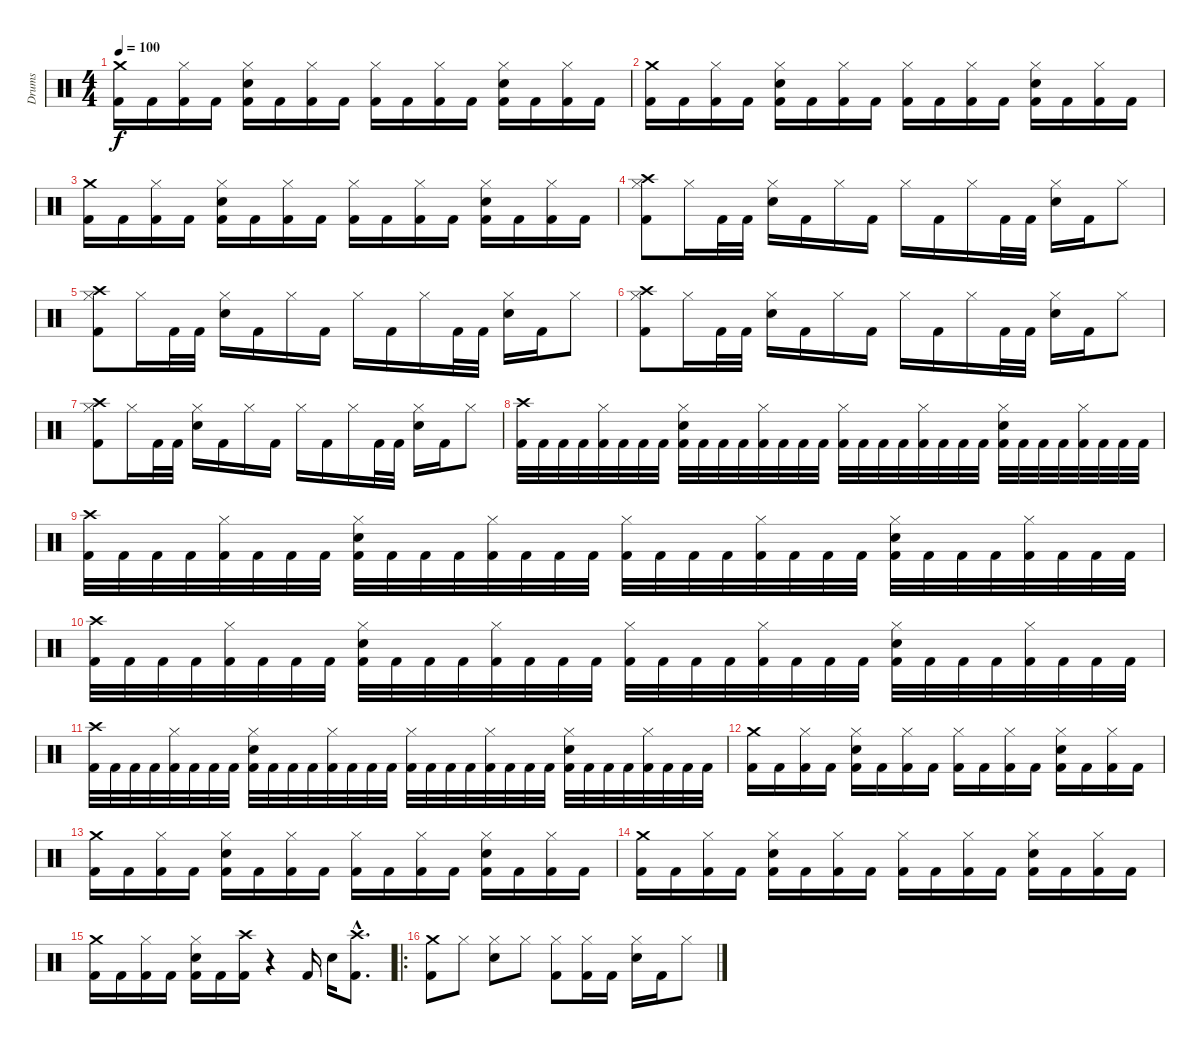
\track ("Drums" "Drums") {instrument percussion}
\staff {score}
\articulation defaults
\ts (4 4)
\tempo 100
\clef neutral
\ks c
("Kick (hit) 2" "Crash medium (hit)").16{dy f} "Kick (hit) 2".16 ("Kick (hit) 2" "Hi-Hat (closed)").16 "Kick (hit) 2".16 ("Kick (hit) 2" "Hi-Hat (closed)" "Snare (hit) 2").16 "Kick (hit) 2".16 ("Kick (hit) 2" "Hi-Hat (closed)").16 "Kick (hit) 2".16 ("Kick (hit) 2" "Hi-Hat (closed)").16 "Kick (hit) 2".16 ("Kick (hit) 2" "Hi-Hat (closed)").16 "Kick (hit) 2".16 ("Kick (hit) 2" "Hi-Hat (closed)" "Snare (hit) 2").16 "Kick (hit) 2".16 ("Kick (hit) 2" "Hi-Hat (closed)").16 "Kick (hit) 2".16 |
("Kick (hit) 2" "Crash medium (hit)").16 "Kick (hit) 2".16 ("Kick (hit) 2" "Hi-Hat (closed)").16 "Kick (hit) 2".16 ("Kick (hit) 2" "Hi-Hat (closed)" "Snare (hit) 2").16 "Kick (hit) 2".16 ("Kick (hit) 2" "Hi-Hat (closed)").16 "Kick (hit) 2".16 ("Kick (hit) 2" "Hi-Hat (closed)").16 "Kick (hit) 2".16 ("Kick (hit) 2" "Hi-Hat (closed)").16 "Kick (hit) 2".16 ("Kick (hit) 2" "Hi-Hat (closed)" "Snare (hit) 2").16 "Kick (hit) 2".16 ("Kick (hit) 2" "Hi-Hat (closed)").16 "Kick (hit) 2".16 |
("Kick (hit) 2" "Crash medium (hit)").16 "Kick (hit) 2".16 ("Kick (hit) 2" "Hi-Hat (closed)").16 "Kick (hit) 2".16 ("Kick (hit) 2" "Hi-Hat (closed)" "Snare (hit) 2").16 "Kick (hit) 2".16 ("Kick (hit) 2" "Hi-Hat (closed)").16 "Kick (hit) 2".16 ("Kick (hit) 2" "Hi-Hat (closed)").16 "Kick (hit) 2".16 ("Kick (hit) 2" "Hi-Hat (closed)").16 "Kick (hit) 2".16 ("Kick (hit) 2" "Hi-Hat (closed)" "Snare (hit) 2").16 "Kick (hit) 2".16 ("Kick (hit) 2" "Hi-Hat (closed)").16 "Kick (hit) 2".16 |
("Kick (hit) 2" "Hi-Hat (closed)" "Crash high (hit)").8 "Hi-Hat (closed)".16 "Kick (hit) 2".32 "Kick (hit) 2".32 ("Hi-Hat (closed)" "Snare (hit) 2").16 "Kick (hit) 2".16 "Hi-Hat (closed)".16 "Kick (hit) 2".16 "Hi-Hat (closed)".16 "Kick (hit) 2".16 "Hi-Hat (closed)".16 "Kick (hit) 2".32 "Kick (hit) 2".32 ("Hi-Hat (closed)" "Snare (hit) 2").16 "Kick (hit) 2".16 "Hi-Hat (closed)".8 |
("Kick (hit) 2" "Hi-Hat (closed)" "Crash high (hit)").8 "Hi-Hat (closed)".16 "Kick (hit) 2".32 "Kick (hit) 2".32 ("Hi-Hat (closed)" "Snare (hit) 2").16 "Kick (hit) 2".16 "Hi-Hat (closed)".16 "Kick (hit) 2".16 "Hi-Hat (closed)".16 "Kick (hit) 2".16 "Hi-Hat (closed)".16 "Kick (hit) 2".32 "Kick (hit) 2".32 ("Hi-Hat (closed)" "Snare (hit) 2").16 "Kick (hit) 2".16 "Hi-Hat (closed)".8 |
("Kick (hit) 2" "Hi-Hat (closed)" "Crash high (hit)").8 "Hi-Hat (closed)".16 "Kick (hit) 2".32 "Kick (hit) 2".32 ("Hi-Hat (closed)" "Snare (hit) 2").16 "Kick (hit) 2".16 "Hi-Hat (closed)".16 "Kick (hit) 2".16 "Hi-Hat (closed)".16 "Kick (hit) 2".16 "Hi-Hat (closed)".16 "Kick (hit) 2".32 "Kick (hit) 2".32 ("Hi-Hat (closed)" "Snare (hit) 2").16 "Kick (hit) 2".16 "Hi-Hat (closed)".8 |
("Kick (hit) 2" "Hi-Hat (closed)" "Crash high (hit)").8 "Hi-Hat (closed)".16 "Kick (hit) 2".32 "Kick (hit) 2".32 ("Hi-Hat (closed)" "Snare (hit) 2").16 "Kick (hit) 2".16 "Hi-Hat (closed)".16 "Kick (hit) 2".16 "Hi-Hat (closed)".16 "Kick (hit) 2".16 "Hi-Hat (closed)".16 "Kick (hit) 2".32 "Kick (hit) 2".32 ("Hi-Hat (closed)" "Snare (hit) 2").16 "Kick (hit) 2".16 "Hi-Hat (closed)".8 |
("Kick (hit) 2" "Crash high (hit)").32 "Kick (hit) 2".32 "Kick (hit) 2".32 "Kick (hit) 2".32 ("Kick (hit) 2" "Hi-Hat (closed)").32 "Kick (hit) 2".32 "Kick (hit) 2".32 "Kick (hit) 2".32 ("Kick (hit) 2" "Hi-Hat (closed)" "Snare (hit) 2").32 "Kick (hit) 2".32 "Kick (hit) 2".32 "Kick (hit) 2".32 ("Kick (hit) 2" "Hi-Hat (closed)").32 "Kick (hit) 2".32 "Kick (hit) 2".32 "Kick (hit) 2".32 ("Kick (hit) 2" "Hi-Hat (closed)").32 "Kick (hit) 2".32 "Kick (hit) 2".32 "Kick (hit) 2".32 ("Kick (hit) 2" "Hi-Hat (closed)").32 "Kick (hit) 2".32 "Kick (hit) 2".32 "Kick (hit) 2".32 ("Kick (hit) 2" "Hi-Hat (closed)" "Snare (hit) 2").32 "Kick (hit) 2".32 "Kick (hit) 2".32 "Kick (hit) 2".32 ("Kick (hit) 2" "Hi-Hat (closed)").32 "Kick (hit) 2".32 "Kick (hit) 2".32 "Kick (hit) 2".32 |
("Kick (hit) 2" "Crash high (hit)").32 "Kick (hit) 2".32 "Kick (hit) 2".32 "Kick (hit) 2".32 ("Kick (hit) 2" "Hi-Hat (closed)").32 "Kick (hit) 2".32 "Kick (hit) 2".32 "Kick (hit) 2".32 ("Kick (hit) 2" "Hi-Hat (closed)" "Snare (hit) 2").32 "Kick (hit) 2".32 "Kick (hit) 2".32 "Kick (hit) 2".32 ("Kick (hit) 2" "Hi-Hat (closed)").32 "Kick (hit) 2".32 "Kick (hit) 2".32 "Kick (hit) 2".32 ("Kick (hit) 2" "Hi-Hat (closed)").32 "Kick (hit) 2".32 "Kick (hit) 2".32 "Kick (hit) 2".32 ("Kick (hit) 2" "Hi-Hat (closed)").32 "Kick (hit) 2".32 "Kick (hit) 2".32 "Kick (hit) 2".32 ("Kick (hit) 2" "Hi-Hat (closed)" "Snare (hit) 2").32 "Kick (hit) 2".32 "Kick (hit) 2".32 "Kick (hit) 2".32 ("Kick (hit) 2" "Hi-Hat (closed)").32 "Kick (hit) 2".32 "Kick (hit) 2".32 "Kick (hit) 2".32 |
("Kick (hit) 2" "Crash high (hit)").32 "Kick (hit) 2".32 "Kick (hit) 2".32 "Kick (hit) 2".32 ("Kick (hit) 2" "Hi-Hat (closed)").32 "Kick (hit) 2".32 "Kick (hit) 2".32 "Kick (hit) 2".32 ("Kick (hit) 2" "Hi-Hat (closed)" "Snare (hit) 2").32 "Kick (hit) 2".32 "Kick (hit) 2".32 "Kick (hit) 2".32 ("Kick (hit) 2" "Hi-Hat (closed)").32 "Kick (hit) 2".32 "Kick (hit) 2".32 "Kick (hit) 2".32 ("Kick (hit) 2" "Hi-Hat (closed)").32 "Kick (hit) 2".32 "Kick (hit) 2".32 "Kick (hit) 2".32 ("Kick (hit) 2" "Hi-Hat (closed)").32 "Kick (hit) 2".32 "Kick (hit) 2".32 "Kick (hit) 2".32 ("Kick (hit) 2" "Hi-Hat (closed)" "Snare (hit) 2").32 "Kick (hit) 2".32 "Kick (hit) 2".32 "Kick (hit) 2".32 ("Kick (hit) 2" "Hi-Hat (closed)").32 "Kick (hit) 2".32 "Kick (hit) 2".32 "Kick (hit) 2".32 |
("Kick (hit) 2" "Crash high (hit)").32 "Kick (hit) 2".32 "Kick (hit) 2".32 "Kick (hit) 2".32 ("Kick (hit) 2" "Hi-Hat (closed)").32 "Kick (hit) 2".32 "Kick (hit) 2".32 "Kick (hit) 2".32 ("Kick (hit) 2" "Hi-Hat (closed)" "Snare (hit) 2").32 "Kick (hit) 2".32 "Kick (hit) 2".32 "Kick (hit) 2".32 ("Kick (hit) 2" "Hi-Hat (closed)").32 "Kick (hit) 2".32 "Kick (hit) 2".32 "Kick (hit) 2".32 ("Kick (hit) 2" "Hi-Hat (closed)").32 "Kick (hit) 2".32 "Kick (hit) 2".32 "Kick (hit) 2".32 ("Kick (hit) 2" "Hi-Hat (closed)").32 "Kick (hit) 2".32 "Kick (hit) 2".32 "Kick (hit) 2".32 ("Kick (hit) 2" "Hi-Hat (closed)" "Snare (hit) 2").32 "Kick (hit) 2".32 "Kick (hit) 2".32 "Kick (hit) 2".32 ("Kick (hit) 2" "Hi-Hat (closed)").32 "Kick (hit) 2".32 "Kick (hit) 2".32 "Kick (hit) 2".32 |
("Kick (hit) 2" "Crash medium (hit)").16 "Kick (hit) 2".16 ("Kick (hit) 2" "Hi-Hat (closed)").16 "Kick (hit) 2".16 ("Kick (hit) 2" "Hi-Hat (closed)" "Snare (hit) 2").16 "Kick (hit) 2".16 ("Kick (hit) 2" "Hi-Hat (closed)").16 "Kick (hit) 2".16 ("Kick (hit) 2" "Hi-Hat (closed)").16 "Kick (hit) 2".16 ("Kick (hit) 2" "Hi-Hat (closed)").16 "Kick (hit) 2".16 ("Kick (hit) 2" "Hi-Hat (closed)" "Snare (hit) 2").16 "Kick (hit) 2".16 ("Kick (hit) 2" "Hi-Hat (closed)").16 "Kick (hit) 2".16 |
("Kick (hit) 2" "Crash medium (hit)").16 "Kick (hit) 2".16 ("Kick (hit) 2" "Hi-Hat (closed)").16 "Kick (hit) 2".16 ("Kick (hit) 2" "Hi-Hat (closed)" "Snare (hit) 2").16 "Kick (hit) 2".16 ("Kick (hit) 2" "Hi-Hat (closed)").16 "Kick (hit) 2".16 ("Kick (hit) 2" "Hi-Hat (closed)").16 "Kick (hit) 2".16 ("Kick (hit) 2" "Hi-Hat (closed)").16 "Kick (hit) 2".16 ("Kick (hit) 2" "Hi-Hat (closed)" "Snare (hit) 2").16 "Kick (hit) 2".16 ("Kick (hit) 2" "Hi-Hat (closed)").16 "Kick (hit) 2".16 |
("Kick (hit) 2" "Crash medium (hit)").16 "Kick (hit) 2".16 ("Kick (hit) 2" "Hi-Hat (closed)").16 "Kick (hit) 2".16 ("Kick (hit) 2" "Hi-Hat (closed)" "Snare (hit) 2").16 "Kick (hit) 2".16 ("Kick (hit) 2" "Hi-Hat (closed)").16 "Kick (hit) 2".16 ("Kick (hit) 2" "Hi-Hat (closed)").16 "Kick (hit) 2".16 ("Kick (hit) 2" "Hi-Hat (closed)").16 "Kick (hit) 2".16 ("Kick (hit) 2" "Hi-Hat (closed)" "Snare (hit) 2").16 "Kick (hit) 2".16 ("Kick (hit) 2" "Hi-Hat (closed)").16 "Kick (hit) 2".16 |
("Kick (hit) 2" "Crash medium (hit)").16 "Kick (hit) 2".16 ("Kick (hit) 2" "Hi-Hat (closed)").16 "Kick (hit) 2".16 ("Kick (hit) 2" "Hi-Hat (closed)" "Snare (hit) 2").16 "Kick (hit) 2".16 ("Kick (hit) 2" "Crash high (hit)").16 r.4 "Kick (hit) 2".16 "Snare (hit) 2".16 ("Kick (hit) 2"{hac} "Crash high (hit)"{hac}).8{d} |
\ro
("Kick (hit) 2" "Crash medium (hit)").8 "Hi-Hat (closed)".8 ("Hi-Hat (closed)" "Snare (hit) 2").8 "Hi-Hat (closed)".8 ("Kick (hit) 2" "Hi-Hat (closed)").8 ("Kick (hit) 2" "Hi-Hat (closed)").16 "Kick (hit) 2".16 ("Hi-Hat (closed)" "Snare (hit) 2").16 "Kick (hit) 2".16 "Hi-Hat (closed)".8
